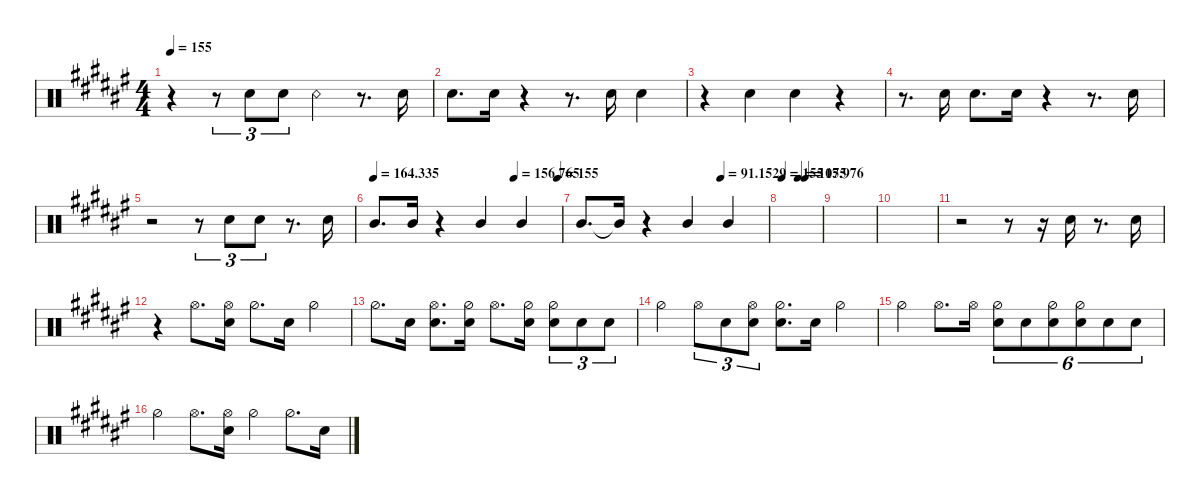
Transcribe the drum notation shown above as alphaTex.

\hideDynamics
\bracketExtendMode nobrackets
\singleTrackTrackNamePolicy hidden
\multiTrackTrackNamePolicy hidden
\otherSystemsTrackNameOrientation horizontal
\track ("Drums" "Drums") {instrument percussion}
\staff {score}
\articulation defaults
\ts (4 4)
\tempo 155
\clef neutral
\ks f#
r.4{dy p beam Down} r.8{tu (3 2) beam Down} "Snare (hit) 2"{acc forcenatural}.8{tu (3 2) dy mp beam Down} "Snare (hit) 2"{acc forcenatural}.8{tu (3 2) beam Down} "Snare (rim shot)"{acc forcenatural}.4{dy pp beam Down} r.8{d beam Down} "Snare (hit) 2"{acc forcenatural}.16{dy p beam Down} |
"Snare (hit) 2"{acc forcenatural}.8{d beam Down} "Snare (hit) 2"{acc forcenatural}.16{beam Down} r.4{beam Down} r.8{d beam Down} "Snare (hit) 2"{acc forcenatural}.16{beam Down} "Snare (hit) 2"{acc forcenatural}.4{dy mp beam Down} |
r.4{beam Down} "Snare (hit) 2"{acc forcenatural}.4{beam Down} "Snare (hit) 2"{acc forcenatural}.4{dy p beam Down} r.4{beam Down} |
r.8{d beam Down} "Snare (hit) 2"{acc forcenatural}.16{beam Down} "Snare (hit) 2"{acc forcenatural}.8{d dy mp beam Down} "Snare (hit) 2"{acc forcenatural}.16{dy p beam Down} r.4{beam Down} r.8{d beam Down} "Snare (hit) 2"{acc forcenatural}.16{beam Down} |
r.2{beam Down} r.8{tu (3 2) beam Down} "Snare (hit) 2"{acc forcenatural}.8{tu (3 2) dy mp beam Down} "Snare (hit) 2"{acc forcenatural}.8{tu (3 2) dy p beam Down} r.8{d beam Down} "Snare (hit) 2"{acc forcenatural}.16{beam Down} |
\tempo
164.335
\tempo (156.765 0.75)
\tempo (155 0.98125)
"Mid Tom (hit)"{acc forcenatural}.8{d beam Up} "Mid Tom (hit)"{acc forcenatural}.16{beam Up} r.4{beam Up} "Mid Tom (hit)"{acc forcenatural}.4{beam Up} "Mid Tom (hit)"{acc forcenatural}.4{beam Up} |
\tempo (91.1529 0.75)
"Mid Tom (hit)"{acc forcenatural}.8{d beam Up} "Mid Tom (hit)"{t acc forcenatural}.16{beam Up} r.4{beam Up} "Mid Tom (hit)"{acc forcenatural}.4{beam Up} "Mid Tom (hit)"{acc forcenatural}.4{beam Up} |
\tempo (155 0.01875)
\tempo (107.976 0.41875)
\tempo (155 0.59375)
|
|
|
r.2{beam Down} r.8{beam Down} r.16{beam Down} "Snare (hit) 2"{acc forcenatural}.16{dy mf beam Down} r.8{d beam Down} "Snare (hit) 2"{acc forcenatural}.16{beam Down} |
r.4{beam Down} "Hi-Hat (open)"{acc forcenatural}.8{d dy p beam Down} ("Snare (hit) 2"{acc forcenatural} "Hi-Hat (open)"{acc forcenatural}).16{beam Down} "Hi-Hat (half)"{acc forcenatural}.8{d beam Down} "Snare (hit) 2"{acc forcenatural}.16{beam Down} "Hi-Hat (half)"{acc forcenatural}.4{beam Down} |
"Hi-Hat (half)"{acc forcenatural}.8{d beam Down} "Snare (hit) 2"{acc forcenatural}.16{beam Down} ("Snare (hit) 2"{acc forcenatural} "Hi-Hat (open)"{acc forcenatural}).8{d beam Down} ("Snare (hit) 2"{acc forcenatural} "Hi-Hat (half)"{acc forcenatural}).16{beam Down} "Hi-Hat (open)"{acc forcenatural}.8{d beam Down} ("Snare (hit) 2"{acc forcenatural} "Hi-Hat (half)"{acc forcenatural}).16{beam Down} ("Snare (hit) 2"{acc forcenatural} "Hi-Hat (half)"{acc forcenatural}).8{tu (3 2) beam Down} "Snare (hit) 2"{acc forcenatural}.8{tu (3 2) beam Down} "Snare (hit) 2"{acc forcenatural}.8{tu (3 2) beam Down} |
"Hi-Hat (half)"{acc forcenatural}.4{beam Down} "Hi-Hat (open)"{acc forcenatural}.8{tu (3 2) beam Down} "Snare (hit) 2"{acc forcenatural}.8{tu (3 2) dy mp beam Down} ("Snare (hit) 2"{acc forcenatural} "Hi-Hat (open)"{acc forcenatural}).8{tu (3 2) dy p beam Down} ("Hi-Hat (half)"{acc forcenatural} "Snare (hit) 2"{acc forcenatural}).8{d beam Down} "Snare (hit) 2"{acc forcenatural}.16{beam Down} "Hi-Hat (half)"{acc forcenatural}.4{beam Down} |
\scale
0.437063 "Hi-Hat (half)"{acc forcenatural}.4{beam Down} "Hi-Hat (open)"{acc forcenatural}.8{d beam Down} "Hi-Hat (open)"{acc forcenatural}.16{beam Down} ("Snare (hit) 2"{acc forcenatural} "Hi-Hat (half)"{acc forcenatural}).8{tu (6 4) dy mp beam Down} "Snare (hit) 2"{acc forcenatural}.8{tu (6 4) beam Down} ("Snare (hit) 2"{acc forcenatural} "Hi-Hat (half)"{acc forcenatural}).8{tu (6 4) beam Down} ("Snare (hit) 2"{acc forcenatural} "Hi-Hat (half)"{acc forcenatural}).8{tu (6 4) beam Down} "Snare (hit) 2"{acc forcenatural}.8{tu (6 4) beam Down} "Snare (hit) 2"{acc forcenatural}.8{tu (6 4) beam Down} |
\scale
0.272727 "Hi-Hat (half)"{acc forcenatural}.4{dy p beam Down} "Hi-Hat (open)"{acc forcenatural}.8{d beam Down} ("Snare (hit) 2"{acc forcenatural} "Hi-Hat (open)"{acc forcenatural}).16{beam Down} "Hi-Hat (half)"{acc forcenatural}.4{beam Down} "Hi-Hat (half)"{acc forcenatural}.8{d beam Down} "Snare (hit) 2"{acc forcenatural}.16{beam Down}
